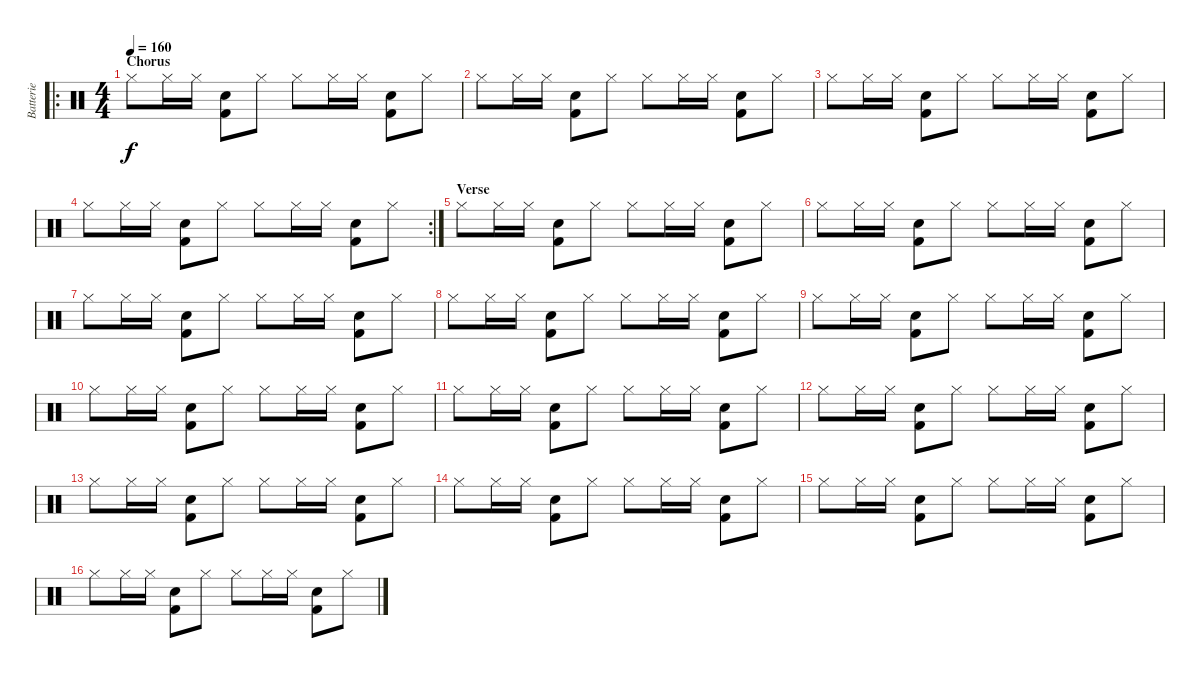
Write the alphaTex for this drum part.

\track ("Batterie" "Batterie") {instrument percussion}
\staff {score}
\articulation defaults
\ro
\ts (4 4)
\section ("" "Chorus")
\tempo 160
\clef neutral
\ks c "Hi-Hat (closed)".8{dy f} "Hi-Hat (closed)".16 "Hi-Hat (closed)".16
("Snare (hit) 2" "Kick (hit) 2").8 "Hi-Hat (closed)".8 "Hi-Hat (closed)".8 "Hi-Hat (closed)".16 "Hi-Hat (closed)".16 ("Snare (hit) 2" "Kick (hit) 2").8 "Hi-Hat (closed)".8 |
"Hi-Hat (closed)".8 "Hi-Hat (closed)".16 "Hi-Hat (closed)".16 ("Snare (hit) 2" "Kick (hit) 2").8 "Hi-Hat (closed)".8 "Hi-Hat (closed)".8 "Hi-Hat (closed)".16 "Hi-Hat (closed)".16 ("Snare (hit) 2" "Kick (hit) 2").8 "Hi-Hat (closed)".8 |
"Hi-Hat (closed)".8 "Hi-Hat (closed)".16 "Hi-Hat (closed)".16 ("Snare (hit) 2" "Kick (hit) 2").8 "Hi-Hat (closed)".8 "Hi-Hat (closed)".8 "Hi-Hat (closed)".16 "Hi-Hat (closed)".16 ("Snare (hit) 2" "Kick (hit) 2").8 "Hi-Hat (closed)".8 |
\rc 2 "Hi-Hat (closed)".8 "Hi-Hat (closed)".16 "Hi-Hat (closed)".16
("Snare (hit) 2" "Kick (hit) 2").8 "Hi-Hat (closed)".8 "Hi-Hat (closed)".8 "Hi-Hat (closed)".16 "Hi-Hat (closed)".16 ("Snare (hit) 2" "Kick (hit) 2").8 "Hi-Hat (closed)".8 |
\section ("" "Verse")
"Hi-Hat (closed)".8 "Hi-Hat (closed)".16 "Hi-Hat (closed)".16 ("Snare (hit) 2" "Kick (hit) 2").8 "Hi-Hat (closed)".8 "Hi-Hat (closed)".8 "Hi-Hat (closed)".16 "Hi-Hat (closed)".16 ("Snare (hit) 2" "Kick (hit) 2").8 "Hi-Hat (closed)".8 |
"Hi-Hat (closed)".8 "Hi-Hat (closed)".16 "Hi-Hat (closed)".16 ("Snare (hit) 2" "Kick (hit) 2").8 "Hi-Hat (closed)".8 "Hi-Hat (closed)".8 "Hi-Hat (closed)".16 "Hi-Hat (closed)".16 ("Snare (hit) 2" "Kick (hit) 2").8 "Hi-Hat (closed)".8 |
"Hi-Hat (closed)".8 "Hi-Hat (closed)".16 "Hi-Hat (closed)".16 ("Snare (hit) 2" "Kick (hit) 2").8 "Hi-Hat (closed)".8 "Hi-Hat (closed)".8 "Hi-Hat (closed)".16 "Hi-Hat (closed)".16 ("Snare (hit) 2" "Kick (hit) 2").8 "Hi-Hat (closed)".8 |
"Hi-Hat (closed)".8 "Hi-Hat (closed)".16 "Hi-Hat (closed)".16 ("Snare (hit) 2" "Kick (hit) 2").8 "Hi-Hat (closed)".8 "Hi-Hat (closed)".8 "Hi-Hat (closed)".16 "Hi-Hat (closed)".16 ("Snare (hit) 2" "Kick (hit) 2").8 "Hi-Hat (closed)".8 |
"Hi-Hat (closed)".8 "Hi-Hat (closed)".16 "Hi-Hat (closed)".16 ("Snare (hit) 2" "Kick (hit) 2").8 "Hi-Hat (closed)".8 "Hi-Hat (closed)".8 "Hi-Hat (closed)".16 "Hi-Hat (closed)".16 ("Snare (hit) 2" "Kick (hit) 2").8 "Hi-Hat (closed)".8 |
"Hi-Hat (closed)".8 "Hi-Hat (closed)".16 "Hi-Hat (closed)".16 ("Snare (hit) 2" "Kick (hit) 2").8 "Hi-Hat (closed)".8 "Hi-Hat (closed)".8 "Hi-Hat (closed)".16 "Hi-Hat (closed)".16 ("Snare (hit) 2" "Kick (hit) 2").8 "Hi-Hat (closed)".8 |
"Hi-Hat (closed)".8 "Hi-Hat (closed)".16 "Hi-Hat (closed)".16 ("Snare (hit) 2" "Kick (hit) 2").8 "Hi-Hat (closed)".8 "Hi-Hat (closed)".8 "Hi-Hat (closed)".16 "Hi-Hat (closed)".16 ("Snare (hit) 2" "Kick (hit) 2").8 "Hi-Hat (closed)".8 |
"Hi-Hat (closed)".8 "Hi-Hat (closed)".16 "Hi-Hat (closed)".16 ("Snare (hit) 2" "Kick (hit) 2").8 "Hi-Hat (closed)".8 "Hi-Hat (closed)".8 "Hi-Hat (closed)".16 "Hi-Hat (closed)".16 ("Snare (hit) 2" "Kick (hit) 2").8 "Hi-Hat (closed)".8 |
"Hi-Hat (closed)".8 "Hi-Hat (closed)".16 "Hi-Hat (closed)".16 ("Snare (hit) 2" "Kick (hit) 2").8 "Hi-Hat (closed)".8 "Hi-Hat (closed)".8 "Hi-Hat (closed)".16 "Hi-Hat (closed)".16 ("Snare (hit) 2" "Kick (hit) 2").8 "Hi-Hat (closed)".8 |
"Hi-Hat (closed)".8 "Hi-Hat (closed)".16 "Hi-Hat (closed)".16 ("Snare (hit) 2" "Kick (hit) 2").8 "Hi-Hat (closed)".8 "Hi-Hat (closed)".8 "Hi-Hat (closed)".16 "Hi-Hat (closed)".16 ("Snare (hit) 2" "Kick (hit) 2").8 "Hi-Hat (closed)".8 |
"Hi-Hat (closed)".8 "Hi-Hat (closed)".16 "Hi-Hat (closed)".16 ("Snare (hit) 2" "Kick (hit) 2").8 "Hi-Hat (closed)".8 "Hi-Hat (closed)".8 "Hi-Hat (closed)".16 "Hi-Hat (closed)".16 ("Snare (hit) 2" "Kick (hit) 2").8 "Hi-Hat (closed)".8 |
"Hi-Hat (closed)".8 "Hi-Hat (closed)".16 "Hi-Hat (closed)".16 ("Snare (hit) 2" "Kick (hit) 2").8 "Hi-Hat (closed)".8 "Hi-Hat (closed)".8 "Hi-Hat (closed)".16 "Hi-Hat (closed)".16 ("Snare (hit) 2" "Kick (hit) 2").8 "Hi-Hat (closed)".8
